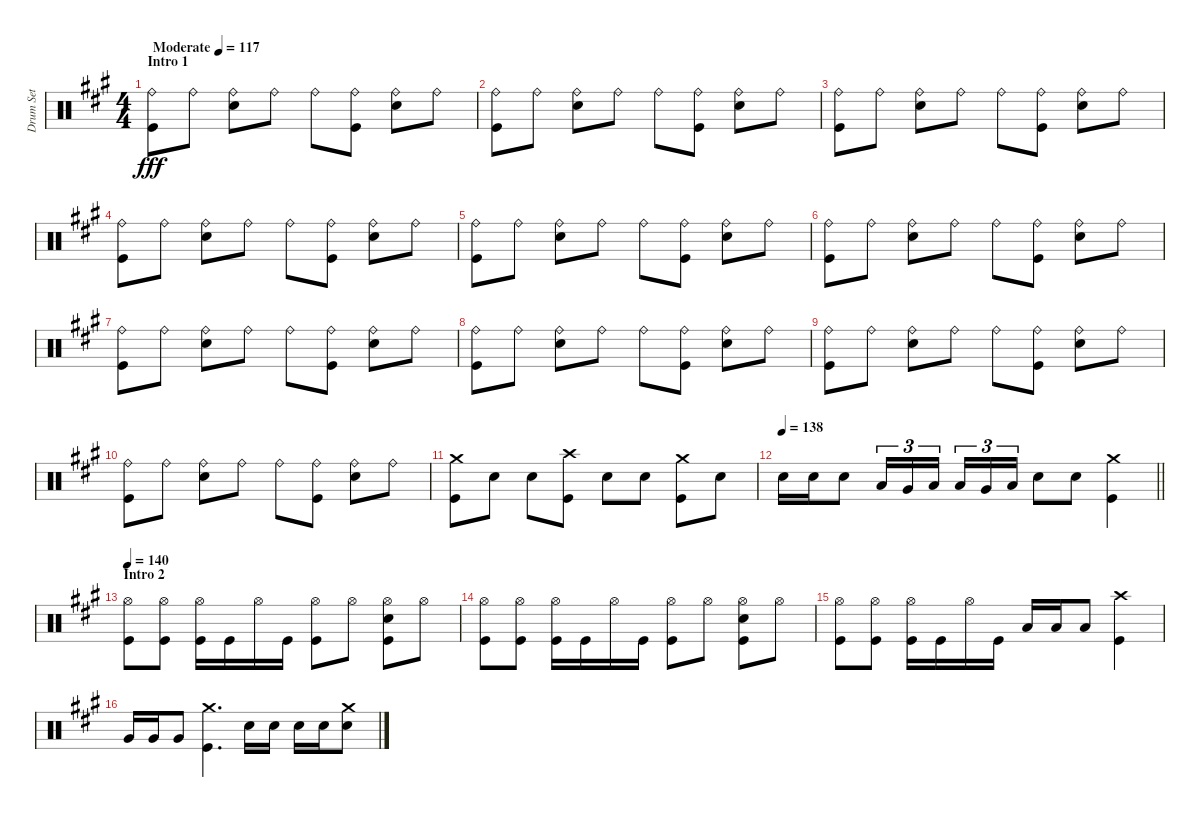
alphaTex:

\track ("Drum Set" "Drum Set") {instrument percussion}
\staff {score}
\articulation defaults
\ts (4 4)
\section ("" "Intro 1")
\tempo (117 "Moderate")
\clef neutral
\ks a
("Ride (bell)" "Kick (hit)").8{dy fff} "Ride (bell)".8 ("Ride (bell)" "Electric Snare (hit)").8 "Ride (bell)".8 "Ride (bell)".8 ("Ride (bell)" "Kick (hit)").8 ("Ride (bell)" "Electric Snare (hit)").8 "Ride (bell)".8 |
("Ride (bell)" "Kick (hit)").8 "Ride (bell)".8 ("Ride (bell)" "Electric Snare (hit)").8 "Ride (bell)".8 "Ride (bell)".8 ("Ride (bell)" "Kick (hit)").8 ("Ride (bell)" "Electric Snare (hit)").8 "Ride (bell)".8 |
("Ride (bell)" "Kick (hit)").8 "Ride (bell)".8 ("Ride (bell)" "Electric Snare (hit)").8 "Ride (bell)".8 "Ride (bell)".8 ("Ride (bell)" "Kick (hit)").8 ("Ride (bell)" "Electric Snare (hit)").8 "Ride (bell)".8 |
("Ride (bell)" "Kick (hit)").8 "Ride (bell)".8 ("Ride (bell)" "Electric Snare (hit)").8 "Ride (bell)".8 "Ride (bell)".8 ("Ride (bell)" "Kick (hit)").8 ("Ride (bell)" "Electric Snare (hit)").8 "Ride (bell)".8 |
("Ride (bell)" "Kick (hit)").8 "Ride (bell)".8 ("Ride (bell)" "Electric Snare (hit)").8 "Ride (bell)".8 "Ride (bell)".8 ("Ride (bell)" "Kick (hit)").8 ("Ride (bell)" "Electric Snare (hit)").8 "Ride (bell)".8 |
("Ride (bell)" "Kick (hit)").8 "Ride (bell)".8 ("Ride (bell)" "Electric Snare (hit)").8 "Ride (bell)".8 "Ride (bell)".8 ("Ride (bell)" "Kick (hit)").8 ("Ride (bell)" "Electric Snare (hit)").8 "Ride (bell)".8 |
("Ride (bell)" "Kick (hit)").8 "Ride (bell)".8 ("Ride (bell)" "Electric Snare (hit)").8 "Ride (bell)".8 "Ride (bell)".8 ("Ride (bell)" "Kick (hit)").8 ("Ride (bell)" "Electric Snare (hit)").8 "Ride (bell)".8 |
("Ride (bell)" "Kick (hit)").8 "Ride (bell)".8 ("Ride (bell)" "Electric Snare (hit)").8 "Ride (bell)".8 "Ride (bell)".8 ("Ride (bell)" "Kick (hit)").8 ("Ride (bell)" "Electric Snare (hit)").8 "Ride (bell)".8 |
("Ride (bell)" "Kick (hit)").8 "Ride (bell)".8 ("Ride (bell)" "Electric Snare (hit)").8 "Ride (bell)".8 "Ride (bell)".8 ("Ride (bell)" "Kick (hit)").8 ("Ride (bell)" "Electric Snare (hit)").8 "Ride (bell)".8 |
("Ride (bell)" "Kick (hit)").8 "Ride (bell)".8 ("Ride (bell)" "Electric Snare (hit)").8 "Ride (bell)".8 "Ride (bell)".8 ("Ride (bell)" "Kick (hit)").8 ("Ride (bell)" "Electric Snare (hit)").8 "Ride (bell)".8 |
("Crash medium (hit)" "Kick (hit)").8 "Electric Snare (hit)".8 "Electric Snare (hit)".8 ("Crash high (hit)" "Kick (hit)").8 "Electric Snare (hit)".8 "Electric Snare (hit)".8 ("Crash medium (hit)" "Kick (hit)").8 "Electric Snare (hit)".8 |
\tempo 138
\barLineRight lightlight "Electric Snare (hit)".16 "Electric Snare (hit)".16 "Electric Snare (hit)".8 "Low Tom (hit)".16{tu (3 2)} "Very Low Tom (hit)".16{tu (3 2)} "Low Floor Tom (hit)".16{tu (3 2) beam splitsecondary} "Low Tom (hit)".16{tu (3 2)} "Very Low Tom (hit)".16{tu (3 2)} "Low Floor Tom (hit)".16{tu (3 2)} "Electric Snare (hit)".8 "Electric Snare (hit)".8
("Crash medium (hit)" "Kick (hit)").4 |
\section ("" "Intro 2")
\tempo 140
("Hi-Hat (open)" "Kick (hit)").8 ("Hi-Hat (open)" "Kick (hit)").8 ("Hi-Hat (open)" "Kick (hit)").16 "Kick (hit)".16 "Hi-Hat (open)".16 "Kick (hit)".16 ("Hi-Hat (open)" "Kick (hit)").8 "Hi-Hat (open)".8 ("Hi-Hat (open)" "Electric Snare (hit)" "Kick (hit)").8 "Hi-Hat (open)".8 |
("Hi-Hat (open)" "Kick (hit)").8 ("Hi-Hat (open)" "Kick (hit)").8 ("Hi-Hat (open)" "Kick (hit)").16 "Kick (hit)".16 "Hi-Hat (open)".16 "Kick (hit)".16 ("Hi-Hat (open)" "Kick (hit)").8 "Hi-Hat (open)".8 ("Hi-Hat (open)" "Electric Snare (hit)" "Kick (hit)").8 "Hi-Hat (open)".8 |
("Hi-Hat (open)" "Kick (hit)").8 ("Hi-Hat (open)" "Kick (hit)").8 ("Hi-Hat (open)" "Kick (hit)").16 "Kick (hit)".16 "Hi-Hat (open)".16 "Kick (hit)".16 "Low Tom (hit)".16 "Low Tom (hit)".16 "Low Tom (hit)".8 ("Crash high (hit)" "Kick (hit)").4 |
"Very Low Tom (hit)".16 "Very Low Tom (hit)".16 "Very Low Tom (hit)".8 ("Crash medium (hit)" "Kick (hit)").4{d} "Electric Snare (hit)".16 "Electric Snare (hit)".16 "Electric Snare (hit)".16 "Electric Snare (hit)".16 ("Crash medium (hit)" "Electric Snare (hit)").8
